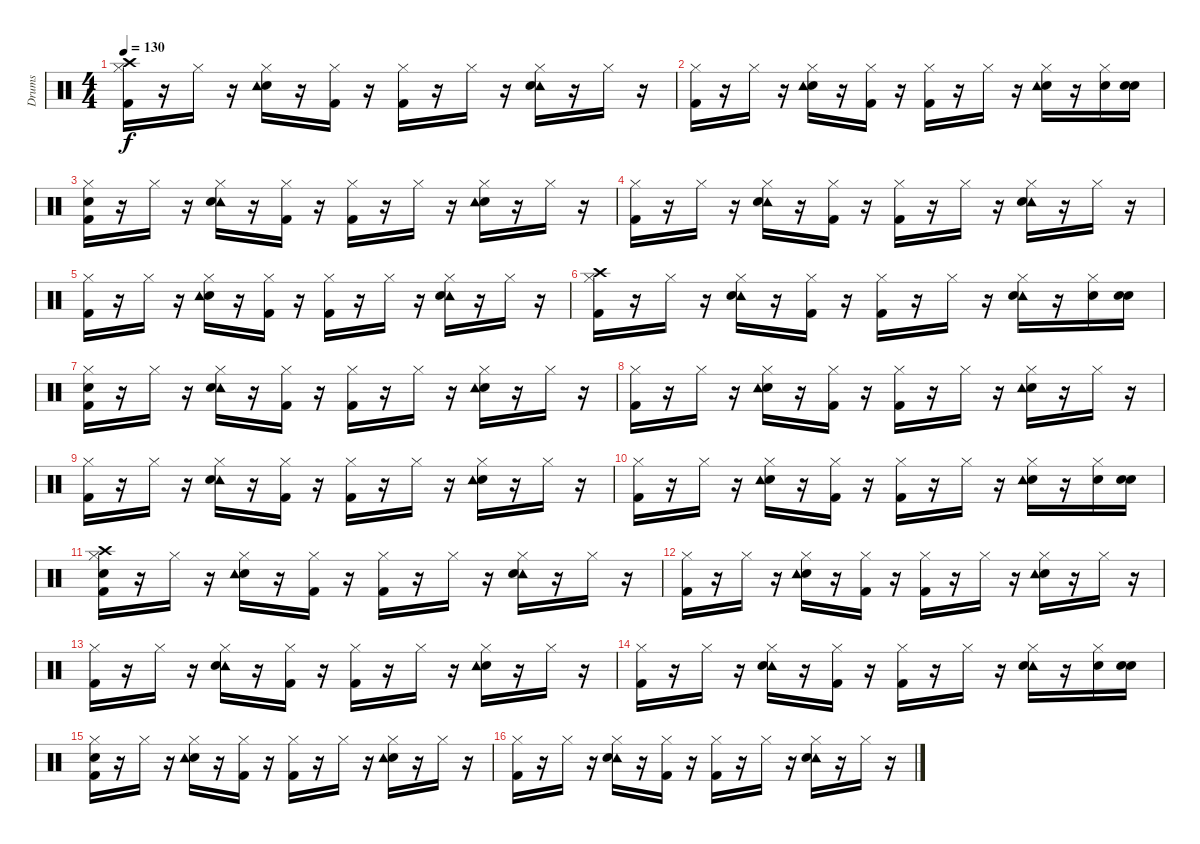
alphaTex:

\track ("Drums" "Drums") {instrument percussion}
\staff {score}
\articulation defaults
\ts (4 4)
\tempo 130
\clef neutral
\ks c
("Crash high (hit)" "Kick (hit) 2" "Hi-Hat (closed)").16{dy f} r.16 "Hi-Hat (closed)".16 r.16 ("Snare (hit) 2" "Hi-Hat (closed)" "Tambourine (hit)").16 r.16 ("Kick (hit) 2" "Hi-Hat (closed)").16 r.16 ("Hi-Hat (closed)" "Kick (hit) 2").16 r.16 "Hi-Hat (closed)".16 r.16 ("Hi-Hat (closed)" "Tambourine (hit)" "Snare (hit) 2").16 r.16 "Hi-Hat (closed)".16 r.16 |
("Kick (hit) 2" "Hi-Hat (closed)").16 r.16 "Hi-Hat (closed)".16 r.16 ("Snare (hit) 2" "Hi-Hat (closed)" "Tambourine (hit)").16 r.16 ("Kick (hit) 2" "Hi-Hat (closed)").16 r.16 ("Kick (hit) 2" "Hi-Hat (closed)").16 r.16 "Hi-Hat (closed)".16 r.16 ("Snare (hit) 2" "Hi-Hat (closed)" "Tambourine (hit)").16 r.16 ("Snare (hit) 2" "Hi-Hat (closed)").16 ("Snare (hit)" "Snare (hit) 2").16 |
("Snare (hit)" "Kick (hit) 2" "Hi-Hat (closed)").16 r.16 "Hi-Hat (closed)".16 r.16 ("Hi-Hat (closed)" "Tambourine (hit)" "Snare (hit) 2").16 r.16 ("Kick (hit) 2" "Hi-Hat (closed)").16 r.16 ("Kick (hit) 2" "Hi-Hat (closed)").16 r.16 "Hi-Hat (closed)".16 r.16 ("Hi-Hat (closed)" "Snare (hit) 2" "Tambourine (hit)").16 r.16 "Hi-Hat (closed)".16 r.16 |
("Hi-Hat (closed)" "Kick (hit) 2").16 r.16 "Hi-Hat (closed)".16 r.16 ("Tambourine (hit)" "Snare (hit) 2" "Hi-Hat (closed)").16 r.16 ("Kick (hit) 2" "Hi-Hat (closed)").16 r.16 ("Hi-Hat (closed)" "Kick (hit) 2").16 r.16 "Hi-Hat (closed)".16 r.16 ("Hi-Hat (closed)" "Tambourine (hit)" "Snare (hit) 2").16 r.16 "Hi-Hat (closed)".16 r.16 |
("Hi-Hat (closed)" "Kick (hit) 2").16 r.16 "Hi-Hat (closed)".16 r.16 ("Hi-Hat (closed)" "Snare (hit) 2" "Tambourine (hit)").16 r.16 ("Kick (hit) 2" "Hi-Hat (closed)").16 r.16 ("Kick (hit) 2" "Hi-Hat (closed)").16 r.16 "Hi-Hat (closed)".16 r.16 ("Hi-Hat (closed)" "Tambourine (hit)" "Snare (hit) 2").16 r.16 "Hi-Hat (closed)".16 r.16 |
("Crash high (hit)" "Kick (hit) 2" "Hi-Hat (closed)").16 r.16 "Hi-Hat (closed)".16 r.16 ("Hi-Hat (closed)" "Tambourine (hit)" "Snare (hit) 2").16 r.16 ("Hi-Hat (closed)" "Kick (hit) 2").16 r.16 ("Hi-Hat (closed)" "Kick (hit) 2").16 r.16 "Hi-Hat (closed)".16 r.16 ("Hi-Hat (closed)" "Tambourine (hit)" "Snare (hit) 2").16 r.16 ("Snare (hit) 2" "Hi-Hat (closed)").16 ("Snare (hit)" "Snare (hit) 2").16 |
("Snare (hit)" "Kick (hit) 2" "Hi-Hat (closed)").16 r.16 "Hi-Hat (closed)".16 r.16 ("Tambourine (hit)" "Hi-Hat (closed)" "Snare (hit) 2").16 r.16 ("Hi-Hat (closed)" "Kick (hit) 2").16 r.16 ("Kick (hit) 2" "Hi-Hat (closed)").16 r.16 "Hi-Hat (closed)".16 r.16 ("Hi-Hat (closed)" "Snare (hit) 2" "Tambourine (hit)").16 r.16 "Hi-Hat (closed)".16 r.16 |
("Kick (hit) 2" "Hi-Hat (closed)").16 r.16 "Hi-Hat (closed)".16 r.16 ("Snare (hit) 2" "Tambourine (hit)" "Hi-Hat (closed)").16 r.16 ("Hi-Hat (closed)" "Kick (hit) 2").16 r.16 ("Hi-Hat (closed)" "Kick (hit) 2").16 r.16 "Hi-Hat (closed)".16 r.16 ("Hi-Hat (closed)" "Snare (hit) 2" "Tambourine (hit)").16 r.16 "Hi-Hat (closed)".16 r.16 |
("Hi-Hat (closed)" "Kick (hit) 2").16 r.16 "Hi-Hat (closed)".16 r.16 ("Tambourine (hit)" "Snare (hit) 2" "Hi-Hat (closed)").16 r.16 ("Kick (hit) 2" "Hi-Hat (closed)").16 r.16 ("Hi-Hat (closed)" "Kick (hit) 2").16 r.16 "Hi-Hat (closed)".16 r.16 ("Snare (hit) 2" "Hi-Hat (closed)" "Tambourine (hit)").16 r.16 "Hi-Hat (closed)".16 r.16 |
("Hi-Hat (closed)" "Kick (hit) 2").16 r.16 "Hi-Hat (closed)".16 r.16 ("Hi-Hat (closed)" "Snare (hit) 2" "Tambourine (hit)").16 r.16 ("Kick (hit) 2" "Hi-Hat (closed)").16 r.16 ("Hi-Hat (closed)" "Kick (hit) 2").16 r.16 "Hi-Hat (closed)".16 r.16 ("Hi-Hat (closed)" "Snare (hit) 2" "Tambourine (hit)").16 r.16 ("Hi-Hat (closed)" "Snare (hit) 2").16 ("Snare (hit)" "Snare (hit) 2").16 |
("Snare (hit)" "Hi-Hat (closed)" "Crash high (hit)" "Kick (hit) 2").16 r.16 "Hi-Hat (closed)".16 r.16 ("Snare (hit) 2" "Tambourine (hit)" "Hi-Hat (closed)").16 r.16 ("Hi-Hat (closed)" "Kick (hit) 2").16 r.16 ("Kick (hit) 2" "Hi-Hat (closed)").16 r.16 "Hi-Hat (closed)".16 r.16 ("Tambourine (hit)" "Snare (hit) 2" "Hi-Hat (closed)").16 r.16 "Hi-Hat (closed)".16 r.16 |
("Hi-Hat (closed)" "Kick (hit) 2").16 r.16 "Hi-Hat (closed)".16 r.16 ("Snare (hit) 2" "Tambourine (hit)" "Hi-Hat (closed)").16 r.16 ("Kick (hit) 2" "Hi-Hat (closed)").16 r.16 ("Kick (hit) 2" "Hi-Hat (closed)").16 r.16 "Hi-Hat (closed)".16 r.16 ("Hi-Hat (closed)" "Snare (hit) 2" "Tambourine (hit)").16 r.16 "Hi-Hat (closed)".16 r.16 |
("Kick (hit) 2" "Hi-Hat (closed)").16 r.16 "Hi-Hat (closed)".16 r.16 ("Tambourine (hit)" "Hi-Hat (closed)" "Snare (hit) 2").16 r.16 ("Kick (hit) 2" "Hi-Hat (closed)").16 r.16 ("Hi-Hat (closed)" "Kick (hit) 2").16 r.16 "Hi-Hat (closed)".16 r.16 ("Snare (hit) 2" "Tambourine (hit)" "Hi-Hat (closed)").16 r.16 "Hi-Hat (closed)".16 r.16 |
("Kick (hit) 2" "Hi-Hat (closed)").16 r.16 "Hi-Hat (closed)".16 r.16 ("Tambourine (hit)" "Snare (hit) 2" "Hi-Hat (closed)").16 r.16 ("Kick (hit) 2" "Hi-Hat (closed)").16 r.16 ("Hi-Hat (closed)" "Kick (hit) 2").16 r.16 "Hi-Hat (closed)".16 r.16 ("Tambourine (hit)" "Hi-Hat (closed)" "Snare (hit) 2").16 r.16 ("Snare (hit) 2" "Hi-Hat (closed)").16 ("Snare (hit)" "Snare (hit) 2").16 |
("Snare (hit)" "Kick (hit) 2" "Hi-Hat (closed)").16 r.16 "Hi-Hat (closed)".16 r.16 ("Snare (hit) 2" "Hi-Hat (closed)" "Tambourine (hit)").16 r.16 ("Kick (hit) 2" "Hi-Hat (closed)").16 r.16 ("Kick (hit) 2" "Hi-Hat (closed)").16 r.16 "Hi-Hat (closed)".16 r.16 ("Hi-Hat (closed)" "Snare (hit) 2" "Tambourine (hit)").16 r.16 "Hi-Hat (closed)".16 r.16 |
("Kick (hit) 2" "Hi-Hat (closed)").16 r.16 "Hi-Hat (closed)".16 r.16 ("Tambourine (hit)" "Hi-Hat (closed)" "Snare (hit) 2").16 r.16 ("Hi-Hat (closed)" "Kick (hit) 2").16 r.16 ("Hi-Hat (closed)" "Kick (hit) 2").16 r.16 "Hi-Hat (closed)".16 r.16 ("Tambourine (hit)" "Snare (hit) 2" "Hi-Hat (closed)").16 r.16 "Hi-Hat (closed)".16 r.16
